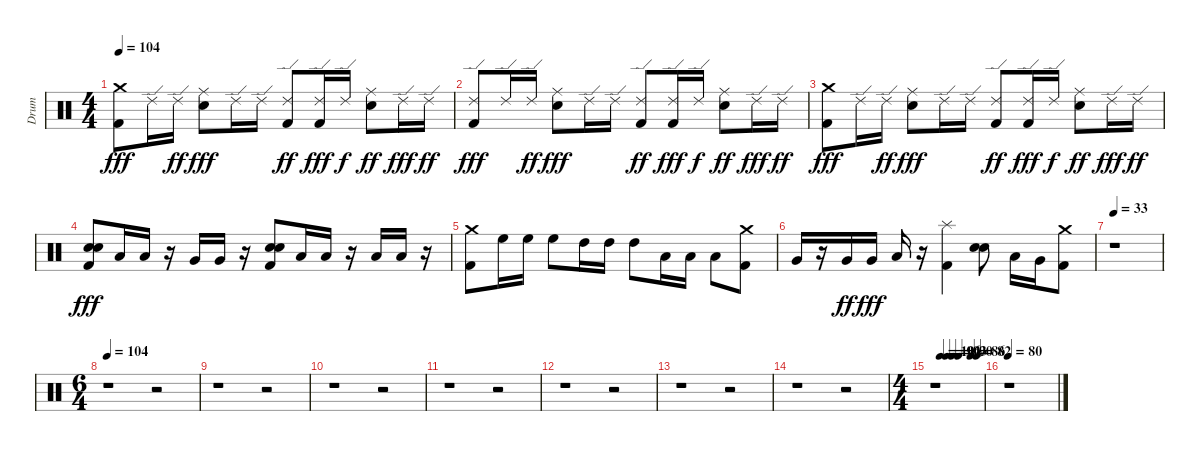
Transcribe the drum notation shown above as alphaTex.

\track ("Drum" "Drum") {instrument percussion}
\staff {score}
\articulation defaults
\ts (4 4)
\tempo 104
\clef neutral
\ks c
("Crash medium (hit)" "Kick (hit) 2").8{dy fff} "Ride (edge) 2".16 "Ride (edge) 2".16{dy ff} ("Electric Snare (hit)" "Ride (middle)").8{dy fff} "Ride (edge) 2".16 "Ride (edge) 2".16 ("Kick (hit) 2" "Ride (edge) 2").8{dy ff} ("Kick (hit) 2" "Ride (edge) 2").16{dy fff} "Ride (edge) 2".16{dy f} ("Electric Snare (hit)" "Ride (middle)").8{dy ff} "Ride (edge) 2".16{dy fff} "Ride (edge) 2".16{dy ff} |
("Kick (hit) 2" "Ride (edge) 2").8{dy fff} "Ride (edge) 2".16 "Ride (edge) 2".16{dy ff} ("Electric Snare (hit)" "Ride (middle)").8{dy fff} "Ride (edge) 2".16 "Ride (edge) 2".16 ("Kick (hit) 2" "Ride (edge) 2").8{dy ff} ("Kick (hit) 2" "Ride (edge) 2").16{dy fff} "Ride (edge) 2".16{dy f} ("Electric Snare (hit)" "Ride (middle)").8{dy ff} "Ride (edge) 2".16{dy fff} "Ride (edge) 2".16{dy ff} |
("Crash medium (hit)" "Kick (hit) 2").8{dy fff} "Ride (edge) 2".16 "Ride (edge) 2".16{dy ff} ("Electric Snare (hit)" "Ride (middle)").8{dy fff} "Ride (edge) 2".16 "Ride (edge) 2".16 ("Kick (hit) 2" "Ride (edge) 2").8{dy ff} ("Kick (hit) 2" "Ride (edge) 2").16{dy fff} "Ride (edge) 2".16{dy f} ("Electric Snare (hit)" "Ride (middle)").8{dy ff} "Ride (edge) 2".16{dy fff} "Ride (edge) 2".16{dy ff} |
("Electric Snare (hit)" "Kick (hit) 2" "Electric Snare (hit)").8{dy fff} "Low Tom (hit)".16 "Low Tom (hit)".16 r.16 "Very Low Tom (hit)".16 "Very Low Tom (hit)".16 r.16 ("Kick (hit) 2" "Electric Snare (hit)" "Electric Snare (hit)").8 "Low Tom (hit)".16 "Low Tom (hit)".16 r.16 "Low Floor Tom (hit)".16 "Low Floor Tom (hit)".16 r.16 |
("Crash medium (hit)" "Kick (hit) 2").8 "High Floor Tom (hit)".16 "High Floor Tom (hit)".16 "High Floor Tom (hit)".8 "High Tom (hit)".16 "High Tom (hit)".16 "High Tom (hit)".8 "Low Tom (hit)".16 "Low Tom (hit)".16 "Low Tom (hit)".8 ("Kick (hit) 2" "Crash medium (hit)").8 |
"Very Low Tom (hit)".16 r.16 "Very Low Tom (hit)".16{dy ff} "Very Low Tom (hit)".16{dy fff} "Low Floor Tom (hit)".16 r.16 ("Kick (hit) 2" "Splash (hit)").4 ("Electric Snare (hit)" "Electric Snare (hit)").8 "Low Tom (hit)".16 "Very Low Tom (hit)".16 ("Kick (hit) 2" "Crash medium (hit)").8 |
\tempo 33
r.1 |
\ts (6 4)
\tempo 104
r.1 r.2 |
r.1 r.2 |
r.1 r.2 |
r.1 r.2 |
r.1 r.2 |
r.1 r.2 |
r.1 r.2 |
\ts (4 4)
\tempo (101 0.125)
\tempo (96 0.25)
\tempo (93 0.375)
\tempo (90 0.5)
\tempo (86 0.75)
\tempo (82 0.875)
r.1 |
\tempo 80
r.1
